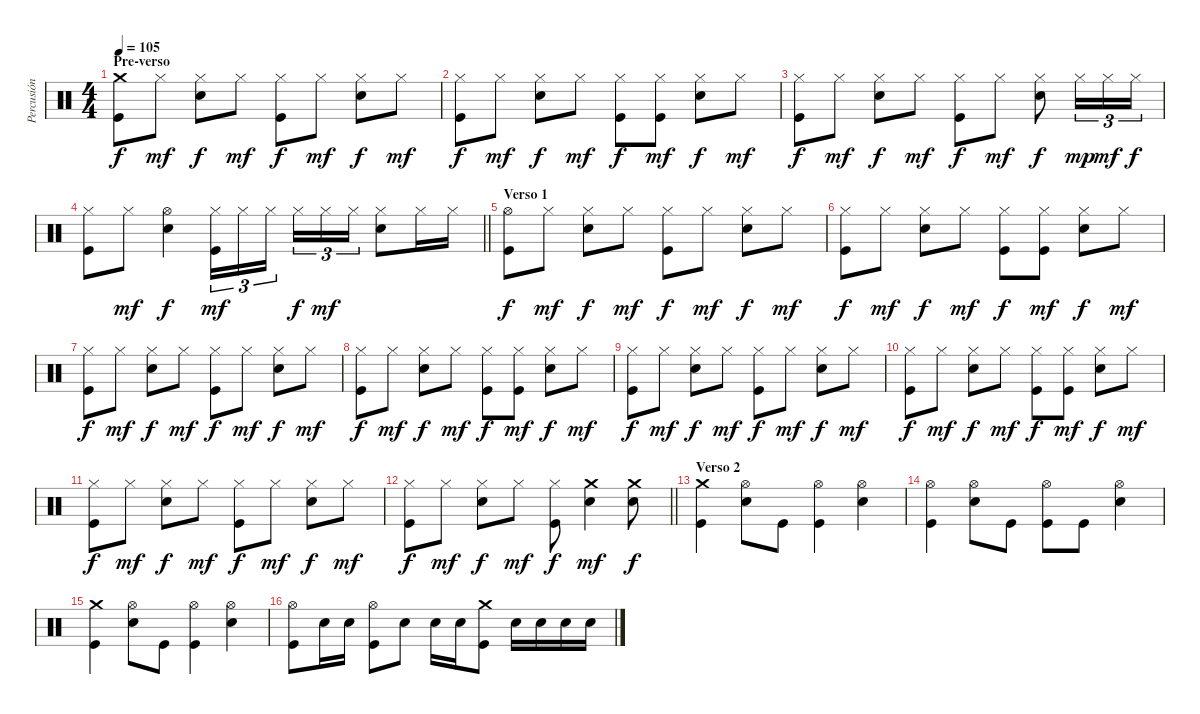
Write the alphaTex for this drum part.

\track ("Percusión" "Percusión") {instrument percussion}
\staff {score}
\articulation defaults
\ts (4 4)
\section ("" "Pre-verso")
\tempo 105
\clef neutral
\ks c
("Crash medium (hit)" "Kick (hit)").8{dy f} "Hi-Hat (closed)".8{dy mf} ("Hi-Hat (closed)" "Snare (hit) 2").8{dy f} "Hi-Hat (closed)".8{dy mf} ("Hi-Hat (closed)" "Kick (hit)").8{dy f} "Hi-Hat (closed)".8{dy mf} ("Hi-Hat (closed)" "Snare (hit) 2").8{dy f} "Hi-Hat (closed)".8{dy mf} |
("Hi-Hat (closed)" "Kick (hit)").8{dy f} "Hi-Hat (closed)".8{dy mf} ("Hi-Hat (closed)" "Snare (hit) 2").8{dy f} "Hi-Hat (closed)".8{dy mf} ("Hi-Hat (closed)" "Kick (hit)").8{dy f} ("Hi-Hat (closed)" "Kick (hit)").8{dy mf} ("Hi-Hat (closed)" "Snare (hit) 2").8{dy f} "Hi-Hat (closed)".8{dy mf} |
("Hi-Hat (closed)" "Kick (hit)").8{dy f} "Hi-Hat (closed)".8{dy mf} ("Hi-Hat (closed)" "Snare (hit) 2").8{dy f} "Hi-Hat (closed)".8{dy mf} ("Hi-Hat (closed)" "Kick (hit)").8{dy f} "Hi-Hat (closed)".8{dy mf} ("Hi-Hat (closed)" "Snare (hit) 2").8{dy f} "Hi-Hat (closed)".16{tu (3 2) dy mp} "Hi-Hat (closed)".16{tu (3 2) dy mf} "Hi-Hat (closed)".16{tu (3 2) dy f} |
\barLineRight lightlight
("Hi-Hat (closed)" "Kick (hit)").8 "Hi-Hat (closed)".8{dy mf} ("Hi-Hat (open)" "Snare (hit) 2").4{dy f} ("Hi-Hat (closed)" "Kick (hit)").16{tu (3 2) dy mf} "Hi-Hat (closed)".16{tu (3 2)} "Hi-Hat (closed)".16{tu (3 2) beam splitsecondary} "Hi-Hat (closed)".16{tu (3 2) dy f} "Hi-Hat (closed)".16{tu (3 2) dy mf} "Hi-Hat (closed)".16{tu (3 2)} ("Hi-Hat (closed)" "Snare (hit) 2").8 "Hi-Hat (closed)".16 "Hi-Hat (closed)".16 |
\section ("" "Verso 1")
("Hi-Hat (open)" "Kick (hit)").8{dy f} "Hi-Hat (closed)".8{dy mf} ("Hi-Hat (closed)" "Snare (hit) 2").8{dy f} "Hi-Hat (closed)".8{dy mf} ("Hi-Hat (closed)" "Kick (hit)").8{dy f} "Hi-Hat (closed)".8{dy mf} ("Hi-Hat (closed)" "Snare (hit) 2").8{dy f} "Hi-Hat (closed)".8{dy mf} |
("Hi-Hat (closed)" "Kick (hit)").8{dy f} "Hi-Hat (closed)".8{dy mf} ("Hi-Hat (closed)" "Snare (hit) 2").8{dy f} "Hi-Hat (closed)".8{dy mf} ("Hi-Hat (closed)" "Kick (hit)").8{dy f} ("Hi-Hat (closed)" "Kick (hit)").8{dy mf} ("Hi-Hat (closed)" "Snare (hit) 2").8{dy f} "Hi-Hat (closed)".8{dy mf} |
("Hi-Hat (closed)" "Kick (hit)").8{dy f} "Hi-Hat (closed)".8{dy mf} ("Hi-Hat (closed)" "Snare (hit) 2").8{dy f} "Hi-Hat (closed)".8{dy mf} ("Hi-Hat (closed)" "Kick (hit)").8{dy f} "Hi-Hat (closed)".8{dy mf} ("Hi-Hat (closed)" "Snare (hit) 2").8{dy f} "Hi-Hat (closed)".8{dy mf} |
("Hi-Hat (closed)" "Kick (hit)").8{dy f} "Hi-Hat (closed)".8{dy mf} ("Hi-Hat (closed)" "Snare (hit) 2").8{dy f} "Hi-Hat (closed)".8{dy mf} ("Hi-Hat (closed)" "Kick (hit)").8{dy f} ("Hi-Hat (closed)" "Kick (hit)").8{dy mf} ("Hi-Hat (closed)" "Snare (hit) 2").8{dy f} "Hi-Hat (closed)".8{dy mf} |
("Hi-Hat (closed)" "Kick (hit)").8{dy f} "Hi-Hat (closed)".8{dy mf} ("Hi-Hat (closed)" "Snare (hit) 2").8{dy f} "Hi-Hat (closed)".8{dy mf} ("Hi-Hat (closed)" "Kick (hit)").8{dy f} "Hi-Hat (closed)".8{dy mf} ("Hi-Hat (closed)" "Snare (hit) 2").8{dy f} "Hi-Hat (closed)".8{dy mf} |
("Hi-Hat (closed)" "Kick (hit)").8{dy f} "Hi-Hat (closed)".8{dy mf} ("Hi-Hat (closed)" "Snare (hit) 2").8{dy f} "Hi-Hat (closed)".8{dy mf} ("Hi-Hat (closed)" "Kick (hit)").8{dy f} ("Hi-Hat (closed)" "Kick (hit)").8{dy mf} ("Hi-Hat (closed)" "Snare (hit) 2").8{dy f} "Hi-Hat (closed)".8{dy mf} |
("Hi-Hat (closed)" "Kick (hit)").8{dy f} "Hi-Hat (closed)".8{dy mf} ("Hi-Hat (closed)" "Snare (hit) 2").8{dy f} "Hi-Hat (closed)".8{dy mf} ("Hi-Hat (closed)" "Kick (hit)").8{dy f} "Hi-Hat (closed)".8{dy mf} ("Hi-Hat (closed)" "Snare (hit) 2").8{dy f} "Hi-Hat (closed)".8{dy mf} |
\barLineRight lightlight
("Hi-Hat (closed)" "Kick (hit)").8{dy f} "Hi-Hat (closed)".8{dy mf} ("Hi-Hat (closed)" "Snare (hit) 2").8{dy f} "Hi-Hat (closed)".8{dy mf} ("Hi-Hat (closed)" "Kick (hit)").8{dy f} ("Crash medium (hit)" "Snare (hit) 2").4{dy mf} ("Crash medium (hit)" "Snare (hit) 2").8{dy f} |
\section ("" "Verso 2")
("Crash medium (hit)" "Kick (hit)").4 ("Hi-Hat (open)" "Snare (hit) 2").8 "Kick (hit)".8 ("Hi-Hat (open)" "Kick (hit)").4 ("Hi-Hat (open)" "Snare (hit) 2").4 |
("Hi-Hat (open)" "Kick (hit)").4 ("Hi-Hat (open)" "Snare (hit) 2").8 "Kick (hit)".8 ("Hi-Hat (open)" "Kick (hit)").8 "Kick (hit)".8 ("Hi-Hat (open)" "Snare (hit) 2").4 |
("Crash medium (hit)" "Kick (hit)").4 ("Hi-Hat (open)" "Snare (hit) 2").8 "Kick (hit)".8 ("Hi-Hat (open)" "Kick (hit)").4 ("Hi-Hat (open)" "Snare (hit) 2").4 |
("Hi-Hat (open)" "Kick (hit)").8 "Snare (hit) 2".16 "Snare (hit) 2".16 ("Hi-Hat (open)" "Kick (hit)").8 "Snare (hit) 2".8 "Snare (hit) 2".16 "Snare (hit) 2".16 ("Crash medium (hit)" "Kick (hit)").8 "Snare (hit) 2".16 "Snare (hit) 2".16 "Snare (hit) 2".16 "Snare (hit) 2".16
